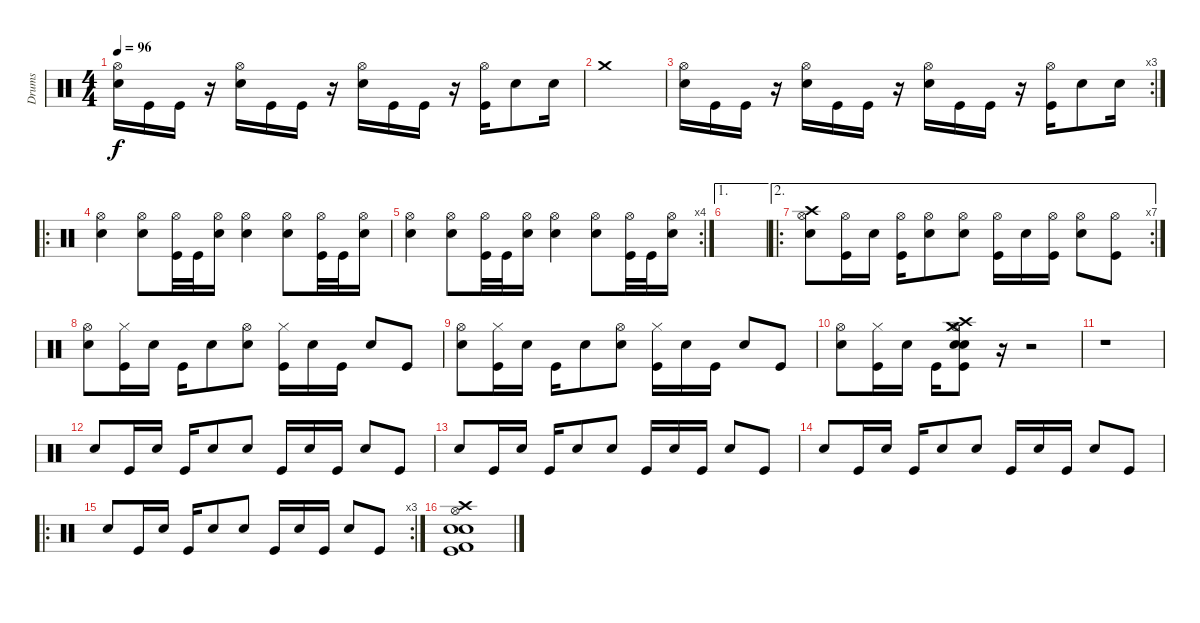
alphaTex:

\track ("Drums" "Drums") {instrument percussion}
\staff {score}
\articulation defaults
\ts (4 4)
\tempo 96
\clef neutral
\ks c
("Hi-Hat (open)" "Snare (hit) 2").16{dy f} "Kick (hit)".16 "Kick (hit)".16 r.16 ("Hi-Hat (open)" "Snare (hit) 2").16 "Kick (hit)".16 "Kick (hit)".16 r.16 ("Hi-Hat (open)" "Snare (hit) 2").16 "Kick (hit)".16 "Kick (hit)".16 r.16 ("Hi-Hat (open)" "Kick (hit)").16 "Snare (hit) 2".8 "Snare (hit) 2".16 |
"Crash medium (hit)".1 |
\rc 3
("Hi-Hat (open)" "Snare (hit) 2").16 "Kick (hit)".16 "Kick (hit)".16 r.16 ("Hi-Hat (open)" "Snare (hit) 2").16 "Kick (hit)".16 "Kick (hit)".16 r.16 ("Hi-Hat (open)" "Snare (hit) 2").16 "Kick (hit)".16 "Kick (hit)".16 r.16 ("Hi-Hat (open)" "Kick (hit)").16 "Snare (hit) 2".8 "Snare (hit) 2".16 |
\ro
("Hi-Hat (open)" "Snare (hit) 2").4 ("Hi-Hat (open)" "Snare (hit) 2").8 ("Hi-Hat (open)" "Kick (hit)").32 "Kick (hit)".32 ("Hi-Hat (open)" "Snare (hit) 2").16 ("Hi-Hat (open)" "Snare (hit) 2").4 ("Hi-Hat (open)" "Snare (hit) 2").8 ("Hi-Hat (open)" "Kick (hit)").32 "Kick (hit)".32 ("Hi-Hat (open)" "Snare (hit) 2").16 |
\rc 4
("Hi-Hat (open)" "Snare (hit) 2").4 ("Hi-Hat (open)" "Snare (hit) 2").8 ("Hi-Hat (open)" "Kick (hit)").32 "Kick (hit)".32 ("Hi-Hat (open)" "Snare (hit) 2").16 ("Hi-Hat (open)" "Snare (hit) 2").4 ("Hi-Hat (open)" "Snare (hit) 2").8 ("Hi-Hat (open)" "Kick (hit)").32 "Kick (hit)".32 ("Hi-Hat (open)" "Snare (hit) 2").16 |
\ae 1
|
\ae 2
\ro
\rc 7
("Hi-Hat (open)" "Crash high (hit)" "Snare (hit) 2").8 ("Hi-Hat (open)" "Kick (hit)").16 "Snare (hit) 2".16 ("Hi-Hat (open)" "Kick (hit)").16 ("Hi-Hat (open)" "Snare (hit) 2").8 ("Hi-Hat (open)" "Snare (hit) 2").8 ("Hi-Hat (open)" "Kick (hit)").16 "Snare (hit) 2".16 ("Hi-Hat (open)" "Kick (hit)").16 ("Hi-Hat (open)" "Snare (hit) 2").8 ("Hi-Hat (open)" "Kick (hit)").8 |
("Hi-Hat (open)" "Snare (hit) 2").8 ("Hi-Hat (closed)" "Kick (hit)").16 "Snare (hit) 2".16 "Kick (hit)".16 "Snare (hit) 2".8 ("Hi-Hat (open)" "Snare (hit) 2").8 ("Hi-Hat (closed)" "Kick (hit)").16 "Snare (hit) 2".16 "Kick (hit)".16 "Snare (hit) 2".8 "Kick (hit)".8 |
("Hi-Hat (open)" "Snare (hit) 2").8 ("Hi-Hat (closed)" "Kick (hit)").16 "Snare (hit) 2".16 "Kick (hit)".16 "Snare (hit) 2".8 ("Hi-Hat (open)" "Snare (hit) 2").8 ("Hi-Hat (closed)" "Kick (hit)").16 "Snare (hit) 2".16 "Kick (hit)".16 "Snare (hit) 2".8 "Kick (hit)".8 |
("Hi-Hat (open)" "Snare (hit) 2").8 ("Hi-Hat (closed)" "Kick (hit)").16 "Snare (hit) 2".16 "Kick (hit)".16 ("Crash high (hit)" "Hi-Hat (open)" "Crash medium (hit)" "Kick (hit)" "Snare (hit) 2" "Electric Snare (hit)").8 r.16 r.2 |
r.1 |
"Snare (hit) 2".8 "Kick (hit)".16 "Snare (hit) 2".16 "Kick (hit)".16 "Snare (hit) 2".8 "Snare (hit) 2".8 "Kick (hit)".16 "Snare (hit) 2".16 "Kick (hit)".16 "Snare (hit) 2".8 "Kick (hit)".8 |
"Snare (hit) 2".8 "Kick (hit)".16 "Snare (hit) 2".16 "Kick (hit)".16 "Snare (hit) 2".8 "Snare (hit) 2".8 "Kick (hit)".16 "Snare (hit) 2".16 "Kick (hit)".16 "Snare (hit) 2".8 "Kick (hit)".8 |
"Snare (hit) 2".8 "Kick (hit)".16 "Snare (hit) 2".16 "Kick (hit)".16 "Snare (hit) 2".8 "Snare (hit) 2".8 "Kick (hit)".16 "Snare (hit) 2".16 "Kick (hit)".16 "Snare (hit) 2".8 "Kick (hit)".8 |
\ro
\rc 3 "Snare (hit) 2".8 "Kick (hit)".16 "Snare (hit) 2".16 "Kick (hit)".16 "Snare (hit) 2".8 "Snare (hit) 2".8 "Kick (hit)".16 "Snare (hit) 2".16 "Kick (hit)".16 "Snare (hit) 2".8 "Kick (hit)".8
|
("Hi-Hat (open)" "Crash high (hit)" "Kick (hit) 2" "Kick (hit)" "Snare (hit) 2" "Electric Snare (hit)").1
